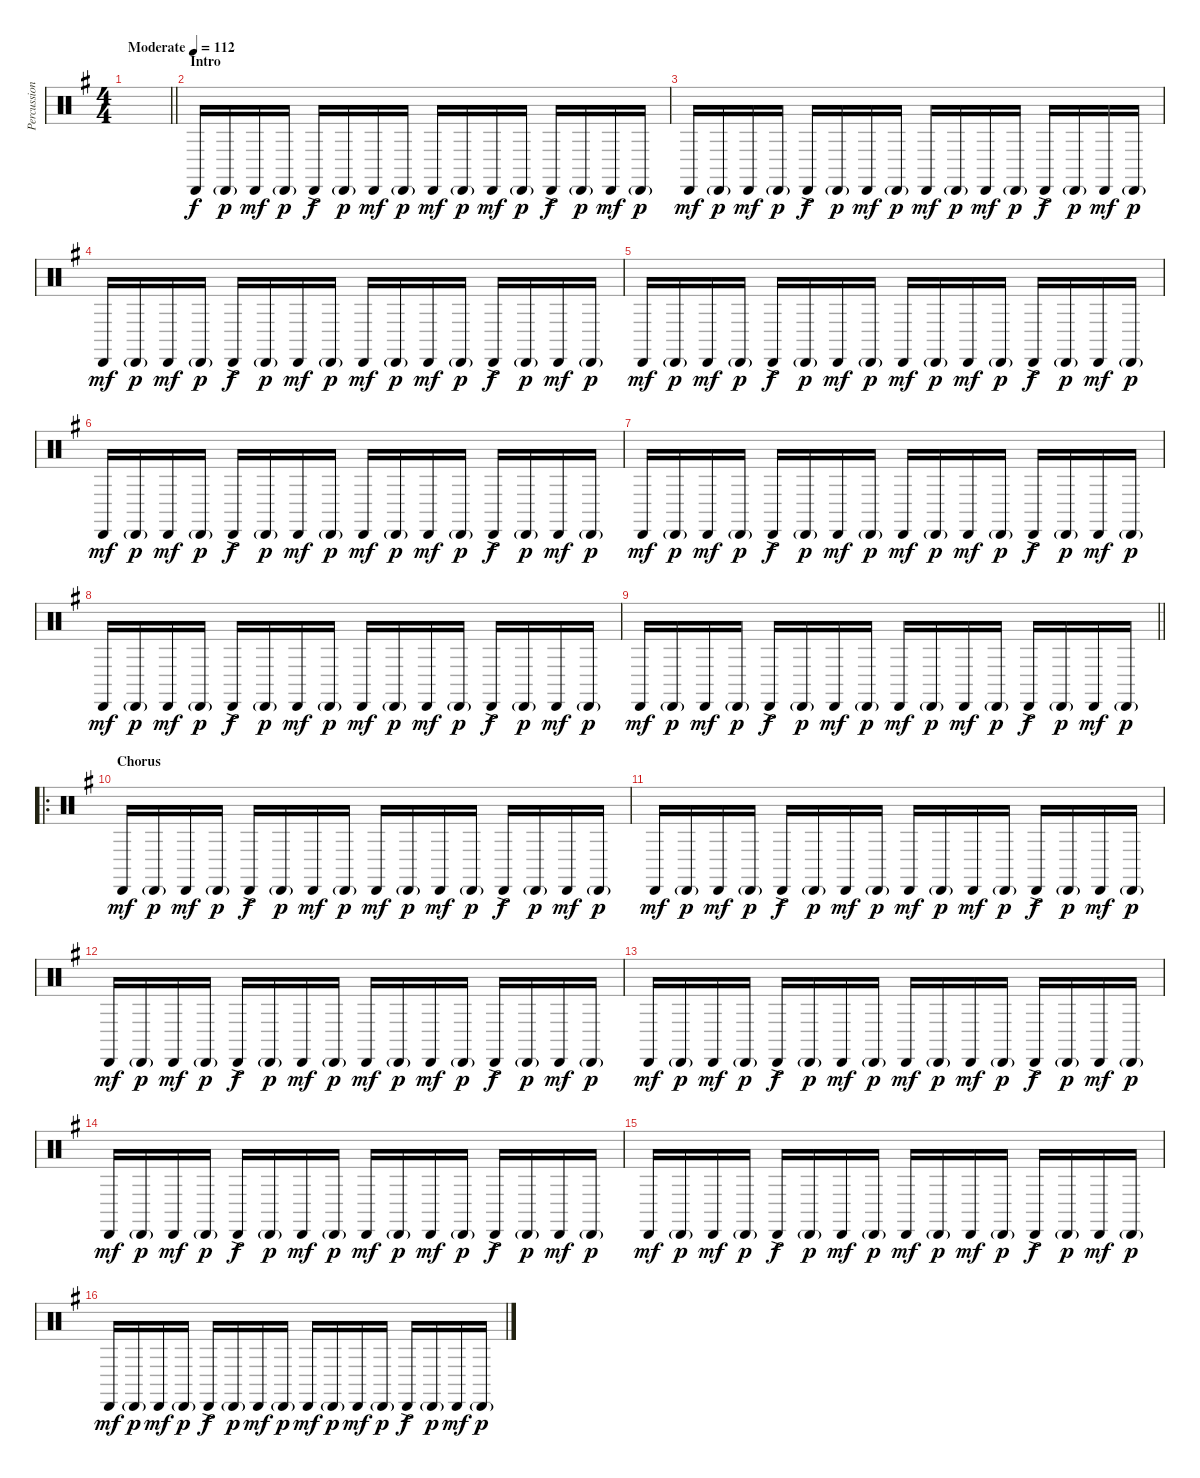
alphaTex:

\track ("Percussion" "Percussion") {instrument percussion}
\staff {score}
\articulation defaults
\ts (4 4)
\tempo (112 "Moderate")
\clef neutral
\barLineRight lightlight
\ks g
|
\section ("" "Intro")
"Cabasa (hit)".16 "Cabasa (hit)"{g}.16{dy p} "Cabasa (hit)".16{dy mf} "Cabasa (hit)"{g}.16{dy p} "Cabasa (hit)"{ac}.16{dy f} "Cabasa (hit)"{g}.16{dy p} "Cabasa (hit)".16{dy mf} "Cabasa (hit)"{g}.16{dy p} "Cabasa (hit)".16{dy mf} "Cabasa (hit)"{g}.16{dy p} "Cabasa (hit)".16{dy mf} "Cabasa (hit)"{g}.16{dy p} "Cabasa (hit)"{ac}.16{dy f} "Cabasa (hit)"{g}.16{dy p} "Cabasa (hit)".16{dy mf} "Cabasa (hit)"{g}.16{dy p} |
"Cabasa (hit)".16{dy mf} "Cabasa (hit)"{g}.16{dy p} "Cabasa (hit)".16{dy mf} "Cabasa (hit)"{g}.16{dy p} "Cabasa (hit)"{ac}.16{dy f} "Cabasa (hit)"{g}.16{dy p} "Cabasa (hit)".16{dy mf} "Cabasa (hit)"{g}.16{dy p} "Cabasa (hit)".16{dy mf} "Cabasa (hit)"{g}.16{dy p} "Cabasa (hit)".16{dy mf} "Cabasa (hit)"{g}.16{dy p} "Cabasa (hit)"{ac}.16{dy f} "Cabasa (hit)"{g}.16{dy p} "Cabasa (hit)".16{dy mf} "Cabasa (hit)"{g}.16{dy p} |
"Cabasa (hit)".16{dy mf} "Cabasa (hit)"{g}.16{dy p} "Cabasa (hit)".16{dy mf} "Cabasa (hit)"{g}.16{dy p} "Cabasa (hit)"{ac}.16{dy f} "Cabasa (hit)"{g}.16{dy p} "Cabasa (hit)".16{dy mf} "Cabasa (hit)"{g}.16{dy p} "Cabasa (hit)".16{dy mf} "Cabasa (hit)"{g}.16{dy p} "Cabasa (hit)".16{dy mf} "Cabasa (hit)"{g}.16{dy p} "Cabasa (hit)"{ac}.16{dy f} "Cabasa (hit)"{g}.16{dy p} "Cabasa (hit)".16{dy mf} "Cabasa (hit)"{g}.16{dy p} |
"Cabasa (hit)".16{dy mf} "Cabasa (hit)"{g}.16{dy p} "Cabasa (hit)".16{dy mf} "Cabasa (hit)"{g}.16{dy p} "Cabasa (hit)"{ac}.16{dy f} "Cabasa (hit)"{g}.16{dy p} "Cabasa (hit)".16{dy mf} "Cabasa (hit)"{g}.16{dy p} "Cabasa (hit)".16{dy mf} "Cabasa (hit)"{g}.16{dy p} "Cabasa (hit)".16{dy mf} "Cabasa (hit)"{g}.16{dy p} "Cabasa (hit)"{ac}.16{dy f} "Cabasa (hit)"{g}.16{dy p} "Cabasa (hit)".16{dy mf} "Cabasa (hit)"{g}.16{dy p} |
"Cabasa (hit)".16{dy mf} "Cabasa (hit)"{g}.16{dy p} "Cabasa (hit)".16{dy mf} "Cabasa (hit)"{g}.16{dy p} "Cabasa (hit)"{ac}.16{dy f} "Cabasa (hit)"{g}.16{dy p} "Cabasa (hit)".16{dy mf} "Cabasa (hit)"{g}.16{dy p} "Cabasa (hit)".16{dy mf} "Cabasa (hit)"{g}.16{dy p} "Cabasa (hit)".16{dy mf} "Cabasa (hit)"{g}.16{dy p} "Cabasa (hit)"{ac}.16{dy f} "Cabasa (hit)"{g}.16{dy p} "Cabasa (hit)".16{dy mf} "Cabasa (hit)"{g}.16{dy p} |
"Cabasa (hit)".16{dy mf} "Cabasa (hit)"{g}.16{dy p} "Cabasa (hit)".16{dy mf} "Cabasa (hit)"{g}.16{dy p} "Cabasa (hit)"{ac}.16{dy f} "Cabasa (hit)"{g}.16{dy p} "Cabasa (hit)".16{dy mf} "Cabasa (hit)"{g}.16{dy p} "Cabasa (hit)".16{dy mf} "Cabasa (hit)"{g}.16{dy p} "Cabasa (hit)".16{dy mf} "Cabasa (hit)"{g}.16{dy p} "Cabasa (hit)"{ac}.16{dy f} "Cabasa (hit)"{g}.16{dy p} "Cabasa (hit)".16{dy mf} "Cabasa (hit)"{g}.16{dy p} |
"Cabasa (hit)".16{dy mf} "Cabasa (hit)"{g}.16{dy p} "Cabasa (hit)".16{dy mf} "Cabasa (hit)"{g}.16{dy p} "Cabasa (hit)"{ac}.16{dy f} "Cabasa (hit)"{g}.16{dy p} "Cabasa (hit)".16{dy mf} "Cabasa (hit)"{g}.16{dy p} "Cabasa (hit)".16{dy mf} "Cabasa (hit)"{g}.16{dy p} "Cabasa (hit)".16{dy mf} "Cabasa (hit)"{g}.16{dy p} "Cabasa (hit)"{ac}.16{dy f} "Cabasa (hit)"{g}.16{dy p} "Cabasa (hit)".16{dy mf} "Cabasa (hit)"{g}.16{dy p} |
\barLineRight lightlight "Cabasa (hit)".16{dy mf} "Cabasa (hit)"{g}.16{dy p} "Cabasa (hit)".16{dy mf} "Cabasa (hit)"{g}.16{dy p} "Cabasa (hit)"{ac}.16{dy f} "Cabasa (hit)"{g}.16{dy p} "Cabasa (hit)".16{dy mf} "Cabasa (hit)"{g}.16{dy p} "Cabasa (hit)".16{dy mf} "Cabasa (hit)"{g}.16{dy p} "Cabasa (hit)".16{dy mf} "Cabasa (hit)"{g}.16{dy p} "Cabasa (hit)"{ac}.16{dy f} "Cabasa (hit)"{g}.16{dy p} "Cabasa (hit)".16{dy mf} "Cabasa (hit)"{g}.16{dy p}
|
\ro
\section ("" "Chorus")
"Cabasa (hit)".16{dy mf} "Cabasa (hit)"{g}.16{dy p} "Cabasa (hit)".16{dy mf} "Cabasa (hit)"{g}.16{dy p} "Cabasa (hit)"{ac}.16{dy f} "Cabasa (hit)"{g}.16{dy p} "Cabasa (hit)".16{dy mf} "Cabasa (hit)"{g}.16{dy p} "Cabasa (hit)".16{dy mf} "Cabasa (hit)"{g}.16{dy p} "Cabasa (hit)".16{dy mf} "Cabasa (hit)"{g}.16{dy p} "Cabasa (hit)"{ac}.16{dy f} "Cabasa (hit)"{g}.16{dy p} "Cabasa (hit)".16{dy mf} "Cabasa (hit)"{g}.16{dy p} |
"Cabasa (hit)".16{dy mf} "Cabasa (hit)"{g}.16{dy p} "Cabasa (hit)".16{dy mf} "Cabasa (hit)"{g}.16{dy p} "Cabasa (hit)"{ac}.16{dy f} "Cabasa (hit)"{g}.16{dy p} "Cabasa (hit)".16{dy mf} "Cabasa (hit)"{g}.16{dy p} "Cabasa (hit)".16{dy mf} "Cabasa (hit)"{g}.16{dy p} "Cabasa (hit)".16{dy mf} "Cabasa (hit)"{g}.16{dy p} "Cabasa (hit)"{ac}.16{dy f} "Cabasa (hit)"{g}.16{dy p} "Cabasa (hit)".16{dy mf} "Cabasa (hit)"{g}.16{dy p} |
"Cabasa (hit)".16{dy mf} "Cabasa (hit)"{g}.16{dy p} "Cabasa (hit)".16{dy mf} "Cabasa (hit)"{g}.16{dy p} "Cabasa (hit)"{ac}.16{dy f} "Cabasa (hit)"{g}.16{dy p} "Cabasa (hit)".16{dy mf} "Cabasa (hit)"{g}.16{dy p} "Cabasa (hit)".16{dy mf} "Cabasa (hit)"{g}.16{dy p} "Cabasa (hit)".16{dy mf} "Cabasa (hit)"{g}.16{dy p} "Cabasa (hit)"{ac}.16{dy f} "Cabasa (hit)"{g}.16{dy p} "Cabasa (hit)".16{dy mf} "Cabasa (hit)"{g}.16{dy p} |
"Cabasa (hit)".16{dy mf} "Cabasa (hit)"{g}.16{dy p} "Cabasa (hit)".16{dy mf} "Cabasa (hit)"{g}.16{dy p} "Cabasa (hit)"{ac}.16{dy f} "Cabasa (hit)"{g}.16{dy p} "Cabasa (hit)".16{dy mf} "Cabasa (hit)"{g}.16{dy p} "Cabasa (hit)".16{dy mf} "Cabasa (hit)"{g}.16{dy p} "Cabasa (hit)".16{dy mf} "Cabasa (hit)"{g}.16{dy p} "Cabasa (hit)"{ac}.16{dy f} "Cabasa (hit)"{g}.16{dy p} "Cabasa (hit)".16{dy mf} "Cabasa (hit)"{g}.16{dy p} |
"Cabasa (hit)".16{dy mf} "Cabasa (hit)"{g}.16{dy p} "Cabasa (hit)".16{dy mf} "Cabasa (hit)"{g}.16{dy p} "Cabasa (hit)"{ac}.16{dy f} "Cabasa (hit)"{g}.16{dy p} "Cabasa (hit)".16{dy mf} "Cabasa (hit)"{g}.16{dy p} "Cabasa (hit)".16{dy mf} "Cabasa (hit)"{g}.16{dy p} "Cabasa (hit)".16{dy mf} "Cabasa (hit)"{g}.16{dy p} "Cabasa (hit)"{ac}.16{dy f} "Cabasa (hit)"{g}.16{dy p} "Cabasa (hit)".16{dy mf} "Cabasa (hit)"{g}.16{dy p} |
"Cabasa (hit)".16{dy mf} "Cabasa (hit)"{g}.16{dy p} "Cabasa (hit)".16{dy mf} "Cabasa (hit)"{g}.16{dy p} "Cabasa (hit)"{ac}.16{dy f} "Cabasa (hit)"{g}.16{dy p} "Cabasa (hit)".16{dy mf} "Cabasa (hit)"{g}.16{dy p} "Cabasa (hit)".16{dy mf} "Cabasa (hit)"{g}.16{dy p} "Cabasa (hit)".16{dy mf} "Cabasa (hit)"{g}.16{dy p} "Cabasa (hit)"{ac}.16{dy f} "Cabasa (hit)"{g}.16{dy p} "Cabasa (hit)".16{dy mf} "Cabasa (hit)"{g}.16{dy p} |
"Cabasa (hit)".16{dy mf} "Cabasa (hit)"{g}.16{dy p} "Cabasa (hit)".16{dy mf} "Cabasa (hit)"{g}.16{dy p} "Cabasa (hit)"{ac}.16{dy f} "Cabasa (hit)"{g}.16{dy p} "Cabasa (hit)".16{dy mf} "Cabasa (hit)"{g}.16{dy p} "Cabasa (hit)".16{dy mf} "Cabasa (hit)"{g}.16{dy p} "Cabasa (hit)".16{dy mf} "Cabasa (hit)"{g}.16{dy p} "Cabasa (hit)"{ac}.16{dy f} "Cabasa (hit)"{g}.16{dy p} "Cabasa (hit)".16{dy mf} "Cabasa (hit)"{g}.16{dy p}
